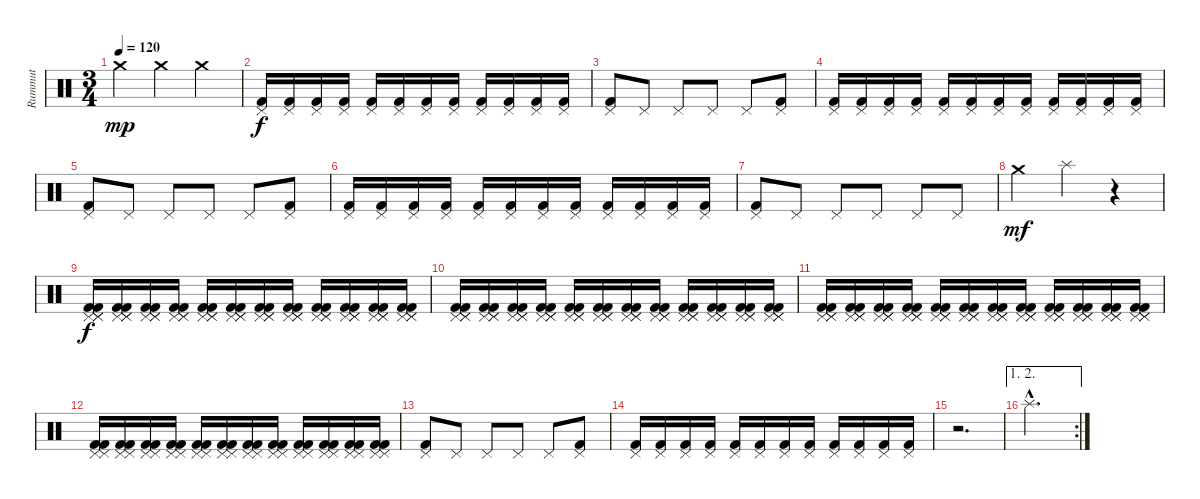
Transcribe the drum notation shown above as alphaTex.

\track ("Rummut" "Rummut") {instrument percussion}
\staff {score}
\articulation defaults
\ts (3 4)
\tempo 120
\clef neutral
\ks c "Crash medium (hit)".4{dy mp} "Crash medium (hit)".4 "Crash medium (hit)".4
|
("Pedal Hi-Hat (hit)" "Kick (hit) 2").16{dy f} ("Pedal Hi-Hat (hit)" "Kick (hit) 2").16 ("Pedal Hi-Hat (hit)" "Kick (hit) 2").16 ("Pedal Hi-Hat (hit)" "Kick (hit) 2").16 ("Pedal Hi-Hat (hit)" "Kick (hit) 2").16 ("Pedal Hi-Hat (hit)" "Kick (hit) 2").16 ("Pedal Hi-Hat (hit)" "Kick (hit) 2").16 ("Pedal Hi-Hat (hit)" "Kick (hit) 2").16 ("Pedal Hi-Hat (hit)" "Kick (hit) 2").16 ("Pedal Hi-Hat (hit)" "Kick (hit) 2").16 ("Pedal Hi-Hat (hit)" "Kick (hit) 2").16 ("Pedal Hi-Hat (hit)" "Kick (hit) 2").16 |
("Pedal Hi-Hat (hit)" "Kick (hit) 2").8 "Pedal Hi-Hat (hit)".8 "Pedal Hi-Hat (hit)".8 "Pedal Hi-Hat (hit)".8 "Pedal Hi-Hat (hit)".8 ("Pedal Hi-Hat (hit)" "Kick (hit) 2").8 |
("Pedal Hi-Hat (hit)" "Kick (hit) 2").16 ("Pedal Hi-Hat (hit)" "Kick (hit) 2").16 ("Pedal Hi-Hat (hit)" "Kick (hit) 2").16 ("Pedal Hi-Hat (hit)" "Kick (hit) 2").16 ("Pedal Hi-Hat (hit)" "Kick (hit) 2").16 ("Pedal Hi-Hat (hit)" "Kick (hit) 2").16 ("Pedal Hi-Hat (hit)" "Kick (hit) 2").16 ("Pedal Hi-Hat (hit)" "Kick (hit) 2").16 ("Pedal Hi-Hat (hit)" "Kick (hit) 2").16 ("Pedal Hi-Hat (hit)" "Kick (hit) 2").16 ("Pedal Hi-Hat (hit)" "Kick (hit) 2").16 ("Pedal Hi-Hat (hit)" "Kick (hit) 2").16 |
("Pedal Hi-Hat (hit)" "Kick (hit) 2").8 "Pedal Hi-Hat (hit)".8 "Pedal Hi-Hat (hit)".8 "Pedal Hi-Hat (hit)".8 "Pedal Hi-Hat (hit)".8 ("Pedal Hi-Hat (hit)" "Kick (hit) 2").8 |
("Pedal Hi-Hat (hit)" "Kick (hit) 2").16 ("Pedal Hi-Hat (hit)" "Kick (hit) 2").16 ("Pedal Hi-Hat (hit)" "Kick (hit) 2").16 ("Pedal Hi-Hat (hit)" "Kick (hit) 2").16 ("Pedal Hi-Hat (hit)" "Kick (hit) 2").16 ("Pedal Hi-Hat (hit)" "Kick (hit) 2").16 ("Pedal Hi-Hat (hit)" "Kick (hit) 2").16 ("Pedal Hi-Hat (hit)" "Kick (hit) 2").16 ("Pedal Hi-Hat (hit)" "Kick (hit) 2").16 ("Pedal Hi-Hat (hit)" "Kick (hit) 2").16 ("Pedal Hi-Hat (hit)" "Kick (hit) 2").16 ("Pedal Hi-Hat (hit)" "Kick (hit) 2").16 |
("Pedal Hi-Hat (hit)" "Kick (hit) 2").8 "Pedal Hi-Hat (hit)".8 "Pedal Hi-Hat (hit)".8 "Pedal Hi-Hat (hit)".8 "Pedal Hi-Hat (hit)".8 "Pedal Hi-Hat (hit)".8 |
"Crash medium (hit)".4{dy mf} "Splash (hit)".4 r.4 |
("Pedal Hi-Hat (hit)" "Pedal Hi-Hat (hit)" "Pedal Hi-Hat (hit)" "Kick (hit) 2" "Kick (hit) 2").16{dy f} ("Pedal Hi-Hat (hit)" "Pedal Hi-Hat (hit)" "Pedal Hi-Hat (hit)" "Kick (hit) 2" "Kick (hit) 2").16 ("Pedal Hi-Hat (hit)" "Pedal Hi-Hat (hit)" "Pedal Hi-Hat (hit)" "Kick (hit) 2" "Kick (hit) 2").16 ("Pedal Hi-Hat (hit)" "Pedal Hi-Hat (hit)" "Pedal Hi-Hat (hit)" "Kick (hit) 2" "Kick (hit) 2").16 ("Pedal Hi-Hat (hit)" "Pedal Hi-Hat (hit)" "Pedal Hi-Hat (hit)" "Kick (hit) 2" "Kick (hit) 2").16 ("Pedal Hi-Hat (hit)" "Pedal Hi-Hat (hit)" "Pedal Hi-Hat (hit)" "Kick (hit) 2" "Kick (hit) 2").16 ("Pedal Hi-Hat (hit)" "Pedal Hi-Hat (hit)" "Pedal Hi-Hat (hit)" "Kick (hit) 2" "Kick (hit) 2").16 ("Pedal Hi-Hat (hit)" "Pedal Hi-Hat (hit)" "Pedal Hi-Hat (hit)" "Kick (hit) 2" "Kick (hit) 2").16 ("Pedal Hi-Hat (hit)" "Pedal Hi-Hat (hit)" "Pedal Hi-Hat (hit)" "Kick (hit) 2" "Kick (hit) 2").16 ("Pedal Hi-Hat (hit)" "Pedal Hi-Hat (hit)" "Pedal Hi-Hat (hit)" "Kick (hit) 2" "Kick (hit) 2").16 ("Pedal Hi-Hat (hit)" "Pedal Hi-Hat (hit)" "Pedal Hi-Hat (hit)" "Kick (hit) 2" "Kick (hit) 2").16 ("Pedal Hi-Hat (hit)" "Pedal Hi-Hat (hit)" "Pedal Hi-Hat (hit)" "Kick (hit) 2" "Kick (hit) 2").16 |
("Pedal Hi-Hat (hit)" "Pedal Hi-Hat (hit)" "Pedal Hi-Hat (hit)" "Kick (hit) 2" "Kick (hit) 2").16 ("Pedal Hi-Hat (hit)" "Pedal Hi-Hat (hit)" "Pedal Hi-Hat (hit)" "Kick (hit) 2" "Kick (hit) 2").16 ("Pedal Hi-Hat (hit)" "Pedal Hi-Hat (hit)" "Pedal Hi-Hat (hit)" "Kick (hit) 2" "Kick (hit) 2").16 ("Pedal Hi-Hat (hit)" "Pedal Hi-Hat (hit)" "Pedal Hi-Hat (hit)" "Kick (hit) 2" "Kick (hit) 2").16 ("Pedal Hi-Hat (hit)" "Pedal Hi-Hat (hit)" "Pedal Hi-Hat (hit)" "Kick (hit) 2" "Kick (hit) 2").16 ("Pedal Hi-Hat (hit)" "Pedal Hi-Hat (hit)" "Pedal Hi-Hat (hit)" "Kick (hit) 2" "Kick (hit) 2").16 ("Pedal Hi-Hat (hit)" "Pedal Hi-Hat (hit)" "Pedal Hi-Hat (hit)" "Kick (hit) 2" "Kick (hit) 2").16 ("Pedal Hi-Hat (hit)" "Pedal Hi-Hat (hit)" "Pedal Hi-Hat (hit)" "Kick (hit) 2" "Kick (hit) 2").16 ("Pedal Hi-Hat (hit)" "Pedal Hi-Hat (hit)" "Pedal Hi-Hat (hit)" "Kick (hit) 2" "Kick (hit) 2").16 ("Pedal Hi-Hat (hit)" "Pedal Hi-Hat (hit)" "Pedal Hi-Hat (hit)" "Kick (hit) 2" "Kick (hit) 2").16 ("Pedal Hi-Hat (hit)" "Pedal Hi-Hat (hit)" "Pedal Hi-Hat (hit)" "Kick (hit) 2" "Kick (hit) 2").16 ("Pedal Hi-Hat (hit)" "Pedal Hi-Hat (hit)" "Pedal Hi-Hat (hit)" "Kick (hit) 2" "Kick (hit) 2").16 |
("Pedal Hi-Hat (hit)" "Pedal Hi-Hat (hit)" "Pedal Hi-Hat (hit)" "Kick (hit) 2" "Kick (hit) 2").16 ("Pedal Hi-Hat (hit)" "Pedal Hi-Hat (hit)" "Pedal Hi-Hat (hit)" "Kick (hit) 2" "Kick (hit) 2").16 ("Pedal Hi-Hat (hit)" "Pedal Hi-Hat (hit)" "Pedal Hi-Hat (hit)" "Kick (hit) 2" "Kick (hit) 2").16 ("Pedal Hi-Hat (hit)" "Pedal Hi-Hat (hit)" "Pedal Hi-Hat (hit)" "Kick (hit) 2" "Kick (hit) 2").16 ("Pedal Hi-Hat (hit)" "Pedal Hi-Hat (hit)" "Pedal Hi-Hat (hit)" "Kick (hit) 2" "Kick (hit) 2").16 ("Pedal Hi-Hat (hit)" "Pedal Hi-Hat (hit)" "Pedal Hi-Hat (hit)" "Kick (hit) 2" "Kick (hit) 2").16 ("Pedal Hi-Hat (hit)" "Pedal Hi-Hat (hit)" "Pedal Hi-Hat (hit)" "Kick (hit) 2" "Kick (hit) 2").16 ("Pedal Hi-Hat (hit)" "Pedal Hi-Hat (hit)" "Pedal Hi-Hat (hit)" "Kick (hit) 2" "Kick (hit) 2").16 ("Pedal Hi-Hat (hit)" "Pedal Hi-Hat (hit)" "Pedal Hi-Hat (hit)" "Kick (hit) 2" "Kick (hit) 2").16 ("Pedal Hi-Hat (hit)" "Pedal Hi-Hat (hit)" "Pedal Hi-Hat (hit)" "Kick (hit) 2" "Kick (hit) 2").16 ("Pedal Hi-Hat (hit)" "Pedal Hi-Hat (hit)" "Pedal Hi-Hat (hit)" "Kick (hit) 2" "Kick (hit) 2").16 ("Pedal Hi-Hat (hit)" "Pedal Hi-Hat (hit)" "Pedal Hi-Hat (hit)" "Kick (hit) 2" "Kick (hit) 2").16 |
("Pedal Hi-Hat (hit)" "Pedal Hi-Hat (hit)" "Kick (hit) 2" "Kick (hit) 2").16 ("Pedal Hi-Hat (hit)" "Pedal Hi-Hat (hit)" "Kick (hit) 2" "Kick (hit) 2").16 ("Pedal Hi-Hat (hit)" "Pedal Hi-Hat (hit)" "Kick (hit) 2" "Kick (hit) 2").16 ("Pedal Hi-Hat (hit)" "Pedal Hi-Hat (hit)" "Kick (hit) 2" "Kick (hit) 2").16 ("Pedal Hi-Hat (hit)" "Pedal Hi-Hat (hit)" "Kick (hit) 2" "Kick (hit) 2").16 ("Pedal Hi-Hat (hit)" "Pedal Hi-Hat (hit)" "Kick (hit) 2" "Kick (hit) 2").16 ("Pedal Hi-Hat (hit)" "Pedal Hi-Hat (hit)" "Kick (hit) 2" "Kick (hit) 2").16 ("Pedal Hi-Hat (hit)" "Pedal Hi-Hat (hit)" "Kick (hit) 2" "Kick (hit) 2").16 ("Pedal Hi-Hat (hit)" "Pedal Hi-Hat (hit)" "Kick (hit) 2" "Kick (hit) 2").16 ("Pedal Hi-Hat (hit)" "Pedal Hi-Hat (hit)" "Kick (hit) 2" "Kick (hit) 2").16 ("Pedal Hi-Hat (hit)" "Pedal Hi-Hat (hit)" "Kick (hit) 2" "Kick (hit) 2").16 ("Pedal Hi-Hat (hit)" "Pedal Hi-Hat (hit)" "Kick (hit) 2" "Kick (hit) 2").16 |
("Pedal Hi-Hat (hit)" "Kick (hit) 2").8 "Pedal Hi-Hat (hit)".8 "Pedal Hi-Hat (hit)".8 "Pedal Hi-Hat (hit)".8 "Pedal Hi-Hat (hit)".8 ("Pedal Hi-Hat (hit)" "Kick (hit) 2").8 |
("Pedal Hi-Hat (hit)" "Kick (hit) 2").16 ("Pedal Hi-Hat (hit)" "Kick (hit) 2").16 ("Pedal Hi-Hat (hit)" "Kick (hit) 2").16 ("Pedal Hi-Hat (hit)" "Kick (hit) 2").16 ("Pedal Hi-Hat (hit)" "Kick (hit) 2").16 ("Pedal Hi-Hat (hit)" "Kick (hit) 2").16 ("Pedal Hi-Hat (hit)" "Kick (hit) 2").16 ("Pedal Hi-Hat (hit)" "Kick (hit) 2").16 ("Pedal Hi-Hat (hit)" "Kick (hit) 2").16 ("Pedal Hi-Hat (hit)" "Kick (hit) 2").16 ("Pedal Hi-Hat (hit)" "Kick (hit) 2").16 ("Pedal Hi-Hat (hit)" "Kick (hit) 2").16 |
r.2{d} |
\ae (1 2)
\rc 2 "Splash (hit)"{hac}.2{d}
